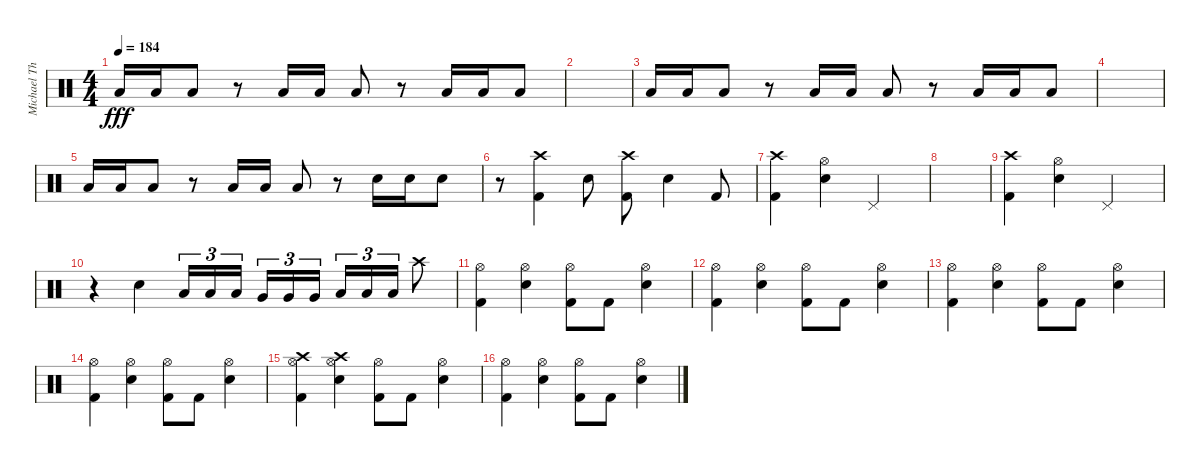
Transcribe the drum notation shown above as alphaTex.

\track ("Michael Thomas - Drums" "Michael Th") {instrument percussion}
\staff {score}
\articulation defaults
\ts (4 4)
\tempo 184
\clef neutral
\ks c "Low Floor Tom (hit)".16{dy fff} "Low Floor Tom (hit)".16 "Low Floor Tom (hit)".8
r.8 "Low Floor Tom (hit)".16 "Low Floor Tom (hit)".16 "Low Floor Tom (hit)".8 r.8 "Low Floor Tom (hit)".16 "Low Floor Tom (hit)".16 "Low Floor Tom (hit)".8 |
|
"Low Floor Tom (hit)".16 "Low Floor Tom (hit)".16 "Low Floor Tom (hit)".8 r.8 "Low Floor Tom (hit)".16 "Low Floor Tom (hit)".16 "Low Floor Tom (hit)".8 r.8 "Low Floor Tom (hit)".16 "Low Floor Tom (hit)".16 "Low Floor Tom (hit)".8 |
|
"Low Floor Tom (hit)".16 "Low Floor Tom (hit)".16 "Low Floor Tom (hit)".8 r.8 "Low Floor Tom (hit)".16 "Low Floor Tom (hit)".16 "Low Floor Tom (hit)".8 r.8 "Snare (hit) 2".16 "Snare (hit) 2".16 "Snare (hit) 2".8 |
r.8 ("Crash high (hit)" "Kick (hit) 2").4 "Snare (hit) 2".8 ("Crash high (hit)" "Kick (hit) 2").8 "Snare (hit) 2".4 "Kick (hit) 2".8 |
("Crash high (hit)" "Kick (hit) 2").4 ("Hi-Hat (open)" "Snare (hit) 2").4 "Pedal Hi-Hat (hit)".2 |
|
("Crash high (hit)" "Kick (hit) 2").4 ("Hi-Hat (open)" "Snare (hit) 2").4 "Pedal Hi-Hat (hit)".2 |
r.4 "Snare (hit) 2".4 "Low Tom (hit)".16{tu (3 2)} "Low Tom (hit)".16{tu (3 2)} "Low Tom (hit)".16{tu (3 2) beam splitsecondary} "Very Low Tom (hit)".16{tu (3 2)} "Very Low Tom (hit)".16{tu (3 2)} "Very Low Tom (hit)".16{tu (3 2)} "Low Floor Tom (hit)".16{tu (3 2)} "Low Floor Tom (hit)".16{tu (3 2)} "Low Floor Tom (hit)".16{tu (3 2)} "Crash high (hit)".8 |
("Hi-Hat (open)" "Kick (hit) 2").4 ("Hi-Hat (open)" "Snare (hit) 2").4 ("Hi-Hat (open)" "Kick (hit) 2").8 "Kick (hit) 2".8 ("Hi-Hat (open)" "Snare (hit) 2").4 |
("Hi-Hat (open)" "Kick (hit) 2").4 ("Hi-Hat (open)" "Snare (hit) 2").4 ("Hi-Hat (open)" "Kick (hit) 2").8 "Kick (hit) 2".8 ("Hi-Hat (open)" "Snare (hit) 2").4 |
("Hi-Hat (open)" "Kick (hit) 2").4 ("Hi-Hat (open)" "Snare (hit) 2").4 ("Hi-Hat (open)" "Kick (hit) 2").8 "Kick (hit) 2".8 ("Hi-Hat (open)" "Snare (hit) 2").4 |
("Hi-Hat (open)" "Kick (hit) 2").4 ("Hi-Hat (open)" "Snare (hit) 2").4 ("Hi-Hat (open)" "Kick (hit) 2").8 "Kick (hit) 2".8 ("Hi-Hat (open)" "Snare (hit) 2").4 |
("Crash high (hit)" "Hi-Hat (open)" "Kick (hit) 2").4 ("Crash high (hit)" "Hi-Hat (open)" "Snare (hit) 2").4 ("Hi-Hat (open)" "Kick (hit) 2").8 "Kick (hit) 2".8 ("Hi-Hat (open)" "Snare (hit) 2").4 |
("Hi-Hat (open)" "Kick (hit) 2").4 ("Hi-Hat (open)" "Snare (hit) 2").4 ("Hi-Hat (open)" "Kick (hit) 2").8 "Kick (hit) 2".8 ("Hi-Hat (open)" "Snare (hit) 2").4
